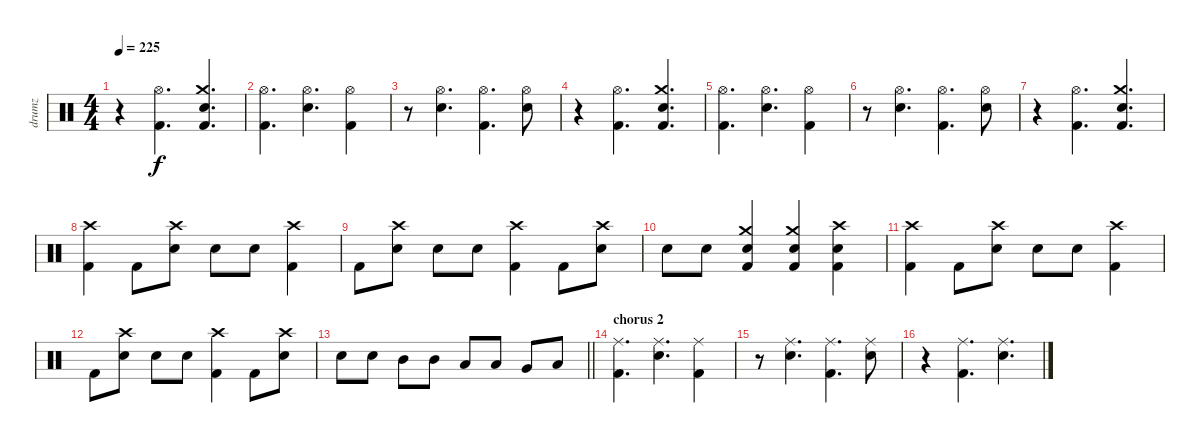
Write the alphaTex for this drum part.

\track ("drumz" "drumz") {instrument percussion}
\staff {score}
\articulation defaults
\ts (4 4)
\tempo 225
\clef neutral
\ks c
r.4{dy f} ("Hi-Hat (open)" "Kick (hit) 2").4{d} ("Crash medium (hit)" "Electric Snare (hit)" "Kick (hit) 2").4{d} |
("Hi-Hat (open)" "Kick (hit) 2").4{d} ("Hi-Hat (open)" "Electric Snare (hit)").4{d} ("Hi-Hat (open)" "Kick (hit) 2").4 |
r.8 ("Hi-Hat (open)" "Electric Snare (hit)").4{d} ("Hi-Hat (open)" "Kick (hit) 2").4{d} ("Hi-Hat (open)" "Electric Snare (hit)").8 |
r.4 ("Hi-Hat (open)" "Kick (hit) 2").4{d} ("Crash medium (hit)" "Electric Snare (hit)" "Kick (hit) 2").4{d} |
("Hi-Hat (open)" "Kick (hit) 2").4{d} ("Hi-Hat (open)" "Electric Snare (hit)").4{d} ("Hi-Hat (open)" "Kick (hit) 2").4 |
r.8 ("Hi-Hat (open)" "Electric Snare (hit)").4{d} ("Hi-Hat (open)" "Kick (hit) 2").4{d} ("Hi-Hat (open)" "Electric Snare (hit)").8 |
r.4 ("Hi-Hat (open)" "Kick (hit) 2").4{d} ("Crash medium (hit)" "Electric Snare (hit)" "Kick (hit) 2").4{d} |
("Crash high (hit)" "Kick (hit) 2").4 "Kick (hit) 2".8 ("Crash high (hit)" "Electric Snare (hit)").8 "Electric Snare (hit)".8 "Electric Snare (hit)".8 ("Crash high (hit)" "Kick (hit) 2").4 |
"Kick (hit) 2".8 ("Crash high (hit)" "Electric Snare (hit)").8 "Electric Snare (hit)".8 "Electric Snare (hit)".8 ("Crash high (hit)" "Kick (hit) 2").4 "Kick (hit) 2".8 ("Crash high (hit)" "Electric Snare (hit)").8 |
"Electric Snare (hit)".8 "Electric Snare (hit)".8 ("Crash medium (hit)" "Electric Snare (hit)" "Kick (hit) 2").4 ("Crash medium (hit)" "Electric Snare (hit)" "Kick (hit) 2").4 ("Crash high (hit)" "Electric Snare (hit)" "Kick (hit) 2").4 |
("Crash high (hit)" "Kick (hit) 2").4 "Kick (hit) 2".8 ("Crash high (hit)" "Electric Snare (hit)").8 "Electric Snare (hit)".8 "Electric Snare (hit)".8 ("Crash high (hit)" "Kick (hit) 2").4 |
"Kick (hit) 2".8 ("Crash high (hit)" "Electric Snare (hit)").8 "Electric Snare (hit)".8 "Electric Snare (hit)".8 ("Crash high (hit)" "Kick (hit) 2").4 "Kick (hit) 2".8 ("Crash high (hit)" "Electric Snare (hit)").8 |
\barLineRight lightlight "Electric Snare (hit)".8 "Electric Snare (hit)".8 "Mid Tom (hit)".8 "Mid Tom (hit)".8 "Low Tom (hit)".8 "Low Tom (hit)".8 "Very Low Tom (hit)".8 "Low Floor Tom (hit)".8
|
\section ("" "chorus 2")
("Ride (middle)" "Kick (hit) 2").4{d} ("Ride (middle)" "Electric Snare (hit)").4{d} ("Ride (middle)" "Kick (hit) 2").4 |
r.8 ("Ride (middle)" "Electric Snare (hit)").4{d} ("Ride (middle)" "Kick (hit) 2").4{d} ("Ride (middle)" "Electric Snare (hit)").8 |
r.4 ("Ride (middle)" "Kick (hit) 2").4{d} ("Ride (middle)" "Electric Snare (hit)").4{d}
